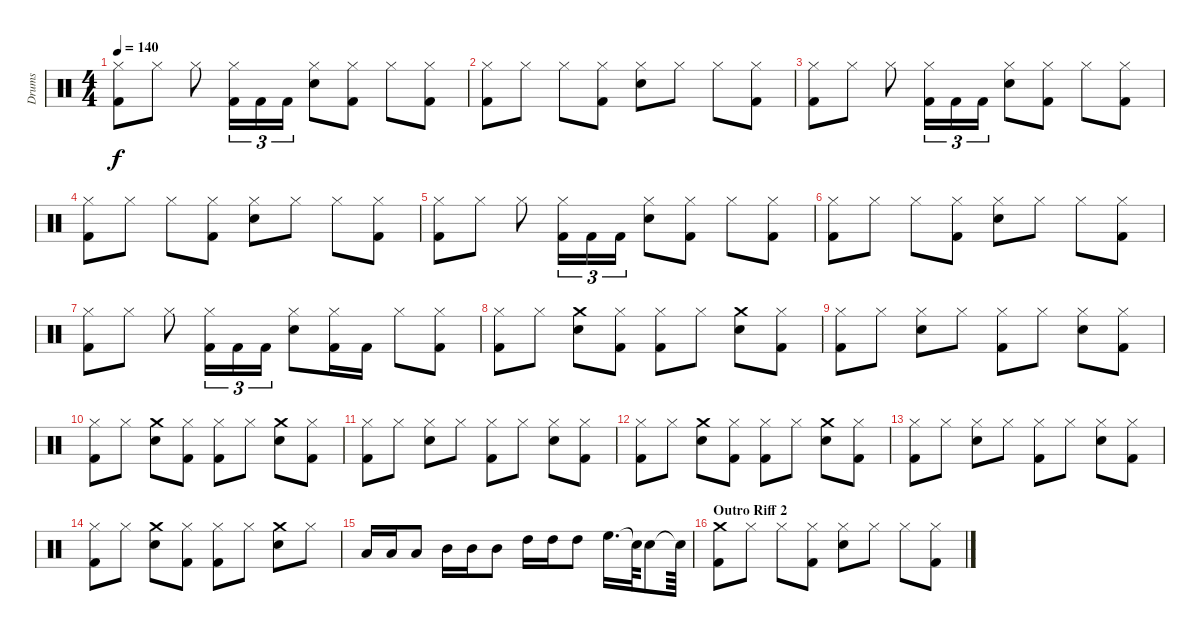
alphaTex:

\track ("Drums" "Drums") {instrument percussion}
\staff {score}
\articulation defaults
\ts (4 4)
\tempo 140
\clef neutral
\ks c
("Hi-Hat (closed)" "Kick (hit) 2").8{dy f} "Hi-Hat (closed)".8 "Hi-Hat (closed)".8 ("Hi-Hat (closed)" "Kick (hit) 2").16{tu (3 2)} "Kick (hit) 2".16{tu (3 2)} "Kick (hit) 2".16{tu (3 2)} ("Snare (hit) 2" "Hi-Hat (closed)").8 ("Hi-Hat (closed)" "Kick (hit) 2").8 "Hi-Hat (closed)".8 ("Hi-Hat (closed)" "Kick (hit) 2").8 |
("Hi-Hat (closed)" "Kick (hit) 2").8 "Hi-Hat (closed)".8 "Hi-Hat (closed)".8 ("Kick (hit) 2" "Hi-Hat (closed)").8 ("Hi-Hat (closed)" "Snare (hit) 2").8 "Hi-Hat (closed)".8 "Hi-Hat (closed)".8 ("Kick (hit) 2" "Hi-Hat (closed)").8 |
("Hi-Hat (closed)" "Kick (hit) 2").8 "Hi-Hat (closed)".8 "Hi-Hat (closed)".8 ("Hi-Hat (closed)" "Kick (hit) 2").16{tu (3 2)} "Kick (hit) 2".16{tu (3 2)} "Kick (hit) 2".16{tu (3 2)} ("Snare (hit) 2" "Hi-Hat (closed)").8 ("Hi-Hat (closed)" "Kick (hit) 2").8 "Hi-Hat (closed)".8 ("Hi-Hat (closed)" "Kick (hit) 2").8 |
("Hi-Hat (closed)" "Kick (hit) 2").8 "Hi-Hat (closed)".8 "Hi-Hat (closed)".8 ("Kick (hit) 2" "Hi-Hat (closed)").8 ("Hi-Hat (closed)" "Snare (hit) 2").8 "Hi-Hat (closed)".8 "Hi-Hat (closed)".8 ("Kick (hit) 2" "Hi-Hat (closed)").8 |
("Hi-Hat (closed)" "Kick (hit) 2").8 "Hi-Hat (closed)".8 "Hi-Hat (closed)".8 ("Hi-Hat (closed)" "Kick (hit) 2").16{tu (3 2)} "Kick (hit) 2".16{tu (3 2)} "Kick (hit) 2".16{tu (3 2)} ("Snare (hit) 2" "Hi-Hat (closed)").8 ("Hi-Hat (closed)" "Kick (hit) 2").8 "Hi-Hat (closed)".8 ("Hi-Hat (closed)" "Kick (hit) 2").8 |
("Hi-Hat (closed)" "Kick (hit) 2").8 "Hi-Hat (closed)".8 "Hi-Hat (closed)".8 ("Kick (hit) 2" "Hi-Hat (closed)").8 ("Hi-Hat (closed)" "Snare (hit) 2").8 "Hi-Hat (closed)".8 "Hi-Hat (closed)".8 ("Kick (hit) 2" "Hi-Hat (closed)").8 |
("Hi-Hat (closed)" "Kick (hit) 2").8 "Hi-Hat (closed)".8 "Hi-Hat (closed)".8 ("Hi-Hat (closed)" "Kick (hit) 2").16{tu (3 2)} "Kick (hit) 2".16{tu (3 2)} "Kick (hit) 2".16{tu (3 2)} ("Snare (hit) 2" "Hi-Hat (closed)").8 ("Hi-Hat (closed)" "Kick (hit) 2").16 "Kick (hit) 2".16 "Hi-Hat (closed)".8 ("Hi-Hat (closed)" "Kick (hit) 2").8 |
("Kick (hit) 2" "Hi-Hat (closed)").8 "Hi-Hat (closed)".8 ("Snare (hit) 2" "Crash medium (hit)").8 ("Kick (hit) 2" "Hi-Hat (closed)").8 ("Kick (hit) 2" "Hi-Hat (closed)").8 "Hi-Hat (closed)".8 ("Crash medium (hit)" "Snare (hit) 2").8 ("Kick (hit) 2" "Hi-Hat (closed)").8 |
("Hi-Hat (closed)" "Kick (hit) 2").8 "Hi-Hat (closed)".8 ("Snare (hit) 2" "Hi-Hat (closed)").8 "Hi-Hat (closed)".8 ("Hi-Hat (closed)" "Kick (hit) 2").8 "Hi-Hat (closed)".8 ("Snare (hit) 2" "Hi-Hat (closed)").8 ("Hi-Hat (closed)" "Kick (hit) 2").8 |
("Kick (hit) 2" "Hi-Hat (closed)").8 "Hi-Hat (closed)".8 ("Snare (hit) 2" "Crash medium (hit)").8 ("Kick (hit) 2" "Hi-Hat (closed)").8 ("Kick (hit) 2" "Hi-Hat (closed)").8 "Hi-Hat (closed)".8 ("Crash medium (hit)" "Snare (hit) 2").8 ("Kick (hit) 2" "Hi-Hat (closed)").8 |
("Hi-Hat (closed)" "Kick (hit) 2").8 "Hi-Hat (closed)".8 ("Snare (hit) 2" "Hi-Hat (closed)").8 "Hi-Hat (closed)".8 ("Hi-Hat (closed)" "Kick (hit) 2").8 "Hi-Hat (closed)".8 ("Snare (hit) 2" "Hi-Hat (closed)").8 ("Hi-Hat (closed)" "Kick (hit) 2").8 |
("Kick (hit) 2" "Hi-Hat (closed)").8 "Hi-Hat (closed)".8 ("Snare (hit) 2" "Crash medium (hit)").8 ("Kick (hit) 2" "Hi-Hat (closed)").8 ("Kick (hit) 2" "Hi-Hat (closed)").8 "Hi-Hat (closed)".8 ("Crash medium (hit)" "Snare (hit) 2").8 ("Kick (hit) 2" "Hi-Hat (closed)").8 |
("Hi-Hat (closed)" "Kick (hit) 2").8 "Hi-Hat (closed)".8 ("Snare (hit) 2" "Hi-Hat (closed)").8 "Hi-Hat (closed)".8 ("Hi-Hat (closed)" "Kick (hit) 2").8 "Hi-Hat (closed)".8 ("Snare (hit) 2" "Hi-Hat (closed)").8 ("Hi-Hat (closed)" "Kick (hit) 2").8 |
("Kick (hit) 2" "Hi-Hat (closed)").8 "Hi-Hat (closed)".8 ("Snare (hit) 2" "Crash medium (hit)").8 ("Kick (hit) 2" "Hi-Hat (closed)").8 ("Kick (hit) 2" "Hi-Hat (closed)").8 "Hi-Hat (closed)".8 ("Crash medium (hit)" "Snare (hit) 2").8 "Hi-Hat (closed)".8 |
"Low Tom (hit)".16 "Low Tom (hit)".16 "Low Tom (hit)".8 "Mid Tom (hit)".16 "Mid Tom (hit)".16 "Mid Tom (hit)".8 "High Tom (hit)".16 "High Tom (hit)".16 "High Tom (hit)".8 "High Floor Tom (hit)".16{d} "Snare (hit)"{t}.64 "Snare (hit) 2".8 "Snare (hit)"{t}.64 |
\section ("" "Outro Riff 2")
("Kick (hit) 2" "Crash medium (hit)").8 "Hi-Hat (closed)".8 "Hi-Hat (closed)".8 ("Kick (hit) 2" "Hi-Hat (closed)").8 ("Hi-Hat (closed)" "Snare (hit) 2").8 "Hi-Hat (closed)".8 "Hi-Hat (closed)".8 ("Kick (hit) 2" "Hi-Hat (closed)").8
